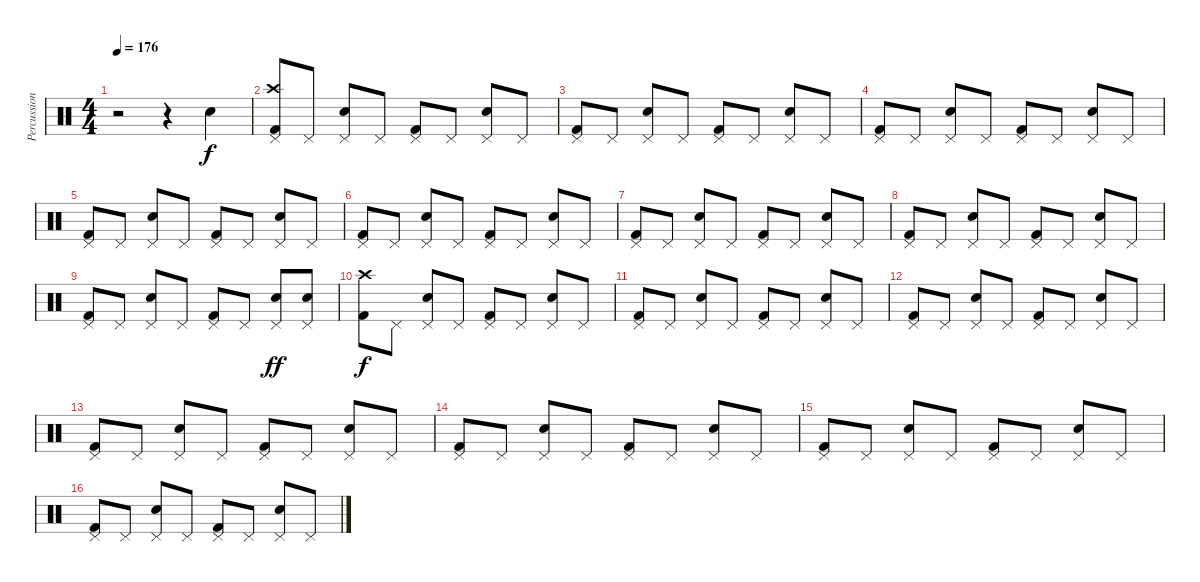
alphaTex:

\track ("Percussions" "Percussion") {instrument percussion}
\staff {score}
\articulation defaults
\ts (4 4)
\tempo 176
\clef neutral
\ks c
r.2{dy f} r.4 "Electric Snare (hit)".4 |
("Pedal Hi-Hat (hit)" "Crash high (hit)" "Kick (hit) 2").8 "Pedal Hi-Hat (hit)".8 ("Pedal Hi-Hat (hit)" "Electric Snare (hit)").8 "Pedal Hi-Hat (hit)".8 ("Pedal Hi-Hat (hit)" "Kick (hit) 2").8 "Pedal Hi-Hat (hit)".8 ("Pedal Hi-Hat (hit)" "Electric Snare (hit)").8 "Pedal Hi-Hat (hit)".8 |
("Pedal Hi-Hat (hit)" "Kick (hit) 2").8 "Pedal Hi-Hat (hit)".8 ("Pedal Hi-Hat (hit)" "Electric Snare (hit)").8 "Pedal Hi-Hat (hit)".8 ("Pedal Hi-Hat (hit)" "Kick (hit) 2").8 "Pedal Hi-Hat (hit)".8 ("Pedal Hi-Hat (hit)" "Electric Snare (hit)").8 "Pedal Hi-Hat (hit)".8 |
("Pedal Hi-Hat (hit)" "Kick (hit) 2").8 "Pedal Hi-Hat (hit)".8 ("Pedal Hi-Hat (hit)" "Electric Snare (hit)").8 "Pedal Hi-Hat (hit)".8 ("Pedal Hi-Hat (hit)" "Kick (hit) 2").8 "Pedal Hi-Hat (hit)".8 ("Pedal Hi-Hat (hit)" "Electric Snare (hit)").8 "Pedal Hi-Hat (hit)".8 |
("Pedal Hi-Hat (hit)" "Kick (hit) 2").8 "Pedal Hi-Hat (hit)".8 ("Pedal Hi-Hat (hit)" "Electric Snare (hit)").8 "Pedal Hi-Hat (hit)".8 ("Pedal Hi-Hat (hit)" "Kick (hit) 2").8 "Pedal Hi-Hat (hit)".8 ("Pedal Hi-Hat (hit)" "Electric Snare (hit)").8 "Pedal Hi-Hat (hit)".8 |
("Pedal Hi-Hat (hit)" "Kick (hit) 2").8 "Pedal Hi-Hat (hit)".8 ("Pedal Hi-Hat (hit)" "Electric Snare (hit)").8 "Pedal Hi-Hat (hit)".8 ("Pedal Hi-Hat (hit)" "Kick (hit) 2").8 "Pedal Hi-Hat (hit)".8 ("Pedal Hi-Hat (hit)" "Electric Snare (hit)").8 "Pedal Hi-Hat (hit)".8 |
("Pedal Hi-Hat (hit)" "Kick (hit) 2").8 "Pedal Hi-Hat (hit)".8 ("Pedal Hi-Hat (hit)" "Electric Snare (hit)").8 "Pedal Hi-Hat (hit)".8 ("Pedal Hi-Hat (hit)" "Kick (hit) 2").8 "Pedal Hi-Hat (hit)".8 ("Pedal Hi-Hat (hit)" "Electric Snare (hit)").8 "Pedal Hi-Hat (hit)".8 |
("Pedal Hi-Hat (hit)" "Kick (hit) 2").8 "Pedal Hi-Hat (hit)".8 ("Pedal Hi-Hat (hit)" "Electric Snare (hit)").8 "Pedal Hi-Hat (hit)".8 ("Pedal Hi-Hat (hit)" "Kick (hit) 2").8 "Pedal Hi-Hat (hit)".8 ("Pedal Hi-Hat (hit)" "Electric Snare (hit)").8 "Pedal Hi-Hat (hit)".8 |
("Pedal Hi-Hat (hit)" "Kick (hit) 2").8 "Pedal Hi-Hat (hit)".8 ("Pedal Hi-Hat (hit)" "Electric Snare (hit)").8 "Pedal Hi-Hat (hit)".8 ("Pedal Hi-Hat (hit)" "Kick (hit) 2").8 "Pedal Hi-Hat (hit)".8 ("Pedal Hi-Hat (hit)" "Electric Snare (hit)").8{dy ff} ("Pedal Hi-Hat (hit)" "Electric Snare (hit)").8 |
("Crash high (hit)" "Kick (hit) 2").8{dy f} "Pedal Hi-Hat (hit)".8 ("Pedal Hi-Hat (hit)" "Electric Snare (hit)").8 "Pedal Hi-Hat (hit)".8 ("Pedal Hi-Hat (hit)" "Kick (hit) 2").8 "Pedal Hi-Hat (hit)".8 ("Pedal Hi-Hat (hit)" "Electric Snare (hit)").8 "Pedal Hi-Hat (hit)".8 |
("Pedal Hi-Hat (hit)" "Kick (hit) 2").8 "Pedal Hi-Hat (hit)".8 ("Pedal Hi-Hat (hit)" "Electric Snare (hit)").8 "Pedal Hi-Hat (hit)".8 ("Pedal Hi-Hat (hit)" "Kick (hit) 2").8 "Pedal Hi-Hat (hit)".8 ("Pedal Hi-Hat (hit)" "Electric Snare (hit)").8 "Pedal Hi-Hat (hit)".8 |
("Pedal Hi-Hat (hit)" "Kick (hit) 2").8 "Pedal Hi-Hat (hit)".8 ("Pedal Hi-Hat (hit)" "Electric Snare (hit)").8 "Pedal Hi-Hat (hit)".8 ("Pedal Hi-Hat (hit)" "Kick (hit) 2").8 "Pedal Hi-Hat (hit)".8 ("Pedal Hi-Hat (hit)" "Electric Snare (hit)").8 "Pedal Hi-Hat (hit)".8 |
("Pedal Hi-Hat (hit)" "Kick (hit) 2").8 "Pedal Hi-Hat (hit)".8 ("Pedal Hi-Hat (hit)" "Electric Snare (hit)").8 "Pedal Hi-Hat (hit)".8 ("Pedal Hi-Hat (hit)" "Kick (hit) 2").8 "Pedal Hi-Hat (hit)".8 ("Pedal Hi-Hat (hit)" "Electric Snare (hit)").8 "Pedal Hi-Hat (hit)".8 |
("Pedal Hi-Hat (hit)" "Kick (hit) 2").8 "Pedal Hi-Hat (hit)".8 ("Pedal Hi-Hat (hit)" "Electric Snare (hit)").8 "Pedal Hi-Hat (hit)".8 ("Pedal Hi-Hat (hit)" "Kick (hit) 2").8 "Pedal Hi-Hat (hit)".8 ("Pedal Hi-Hat (hit)" "Electric Snare (hit)").8 "Pedal Hi-Hat (hit)".8 |
("Pedal Hi-Hat (hit)" "Kick (hit) 2").8 "Pedal Hi-Hat (hit)".8 ("Pedal Hi-Hat (hit)" "Electric Snare (hit)").8 "Pedal Hi-Hat (hit)".8 ("Pedal Hi-Hat (hit)" "Kick (hit) 2").8 "Pedal Hi-Hat (hit)".8 ("Pedal Hi-Hat (hit)" "Electric Snare (hit)").8 "Pedal Hi-Hat (hit)".8 |
("Pedal Hi-Hat (hit)" "Kick (hit) 2").8 "Pedal Hi-Hat (hit)".8 ("Pedal Hi-Hat (hit)" "Electric Snare (hit)").8 "Pedal Hi-Hat (hit)".8 ("Pedal Hi-Hat (hit)" "Kick (hit) 2").8 "Pedal Hi-Hat (hit)".8 ("Pedal Hi-Hat (hit)" "Electric Snare (hit)").8 "Pedal Hi-Hat (hit)".8
